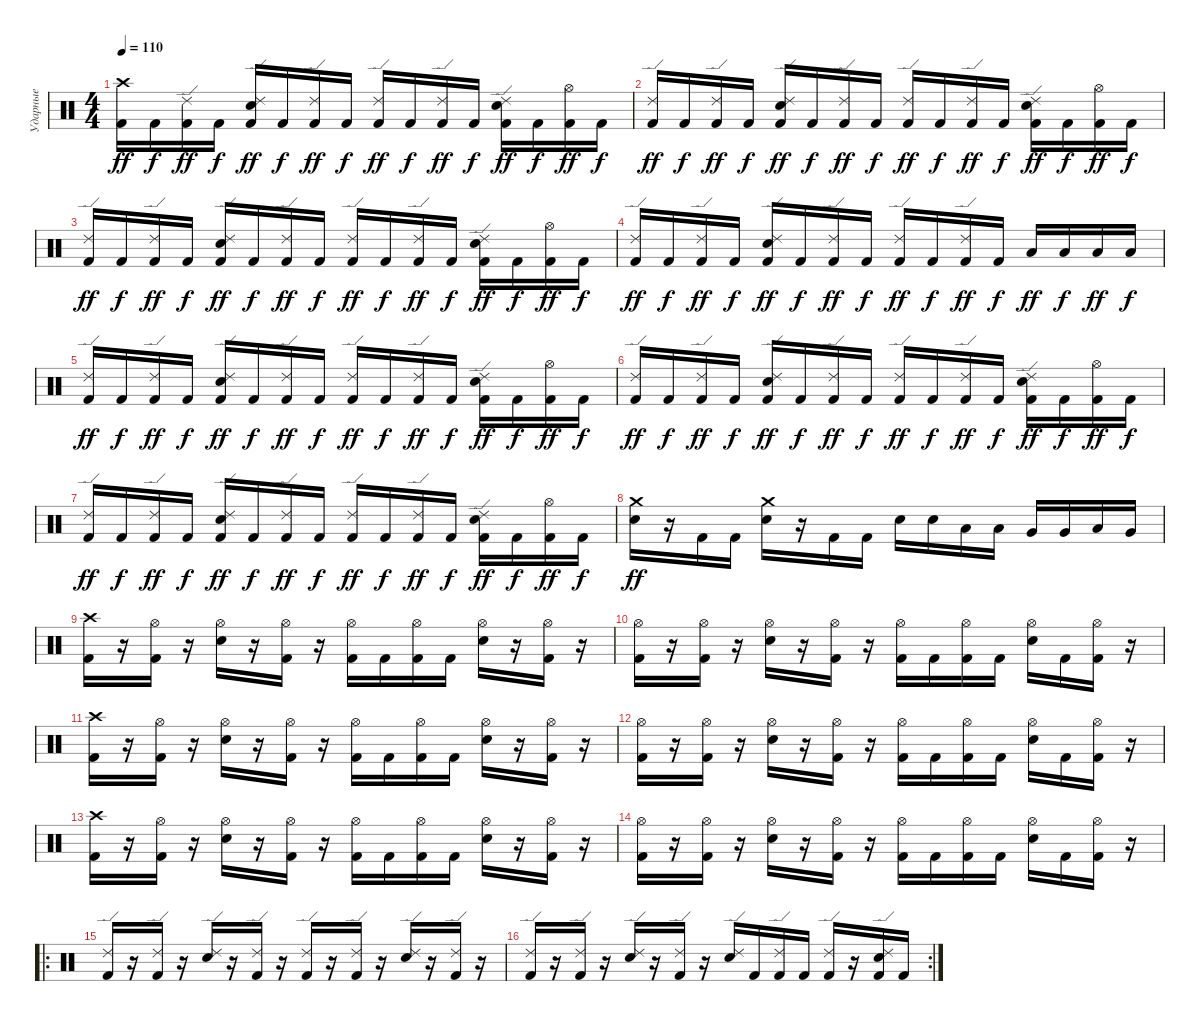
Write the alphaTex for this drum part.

\track ("Ударные" "Ударные") {instrument percussion}
\staff {score}
\articulation defaults
\ts (4 4)
\tempo 110
\clef neutral
\ks c
("Crash high (hit)" "Kick (hit) 2").16{dy ff} "Kick (hit) 2".16{dy f} ("Ride (edge) 2" "Kick (hit) 2").16{dy ff} "Kick (hit) 2".16{dy f} ("Ride (edge) 2" "Snare (hit) 2" "Kick (hit) 2").16{dy ff} "Kick (hit) 2".16{dy f} ("Ride (edge) 2" "Kick (hit) 2").16{dy ff} "Kick (hit) 2".16{dy f} ("Ride (edge) 2" "Kick (hit) 2").16{dy ff} "Kick (hit) 2".16{dy f} ("Ride (edge) 2" "Kick (hit) 2").16{dy ff} "Kick (hit) 2".16{dy f} ("Ride (edge) 2" "Snare (hit) 2" "Kick (hit) 2").16{dy ff} "Kick (hit) 2".16{dy f} ("Hi-Hat (open)" "Kick (hit) 2").16{dy ff} "Kick (hit) 2".16{dy f} |
("Ride (edge) 2" "Kick (hit) 2").16{dy ff} "Kick (hit) 2".16{dy f} ("Ride (edge) 2" "Kick (hit) 2").16{dy ff} "Kick (hit) 2".16{dy f} ("Ride (edge) 2" "Snare (hit) 2" "Kick (hit) 2").16{dy ff} "Kick (hit) 2".16{dy f} ("Ride (edge) 2" "Kick (hit) 2").16{dy ff} "Kick (hit) 2".16{dy f} ("Ride (edge) 2" "Kick (hit) 2").16{dy ff} "Kick (hit) 2".16{dy f} ("Ride (edge) 2" "Kick (hit) 2").16{dy ff} "Kick (hit) 2".16{dy f} ("Ride (edge) 2" "Snare (hit) 2" "Kick (hit) 2").16{dy ff} "Kick (hit) 2".16{dy f} ("Hi-Hat (open)" "Kick (hit) 2").16{dy ff} "Kick (hit) 2".16{dy f} |
("Ride (edge) 2" "Kick (hit) 2").16{dy ff} "Kick (hit) 2".16{dy f} ("Ride (edge) 2" "Kick (hit) 2").16{dy ff} "Kick (hit) 2".16{dy f} ("Ride (edge) 2" "Snare (hit) 2" "Kick (hit) 2").16{dy ff} "Kick (hit) 2".16{dy f} ("Ride (edge) 2" "Kick (hit) 2").16{dy ff} "Kick (hit) 2".16{dy f} ("Ride (edge) 2" "Kick (hit) 2").16{dy ff} "Kick (hit) 2".16{dy f} ("Ride (edge) 2" "Kick (hit) 2").16{dy ff} "Kick (hit) 2".16{dy f} ("Ride (edge) 2" "Snare (hit) 2" "Kick (hit) 2").16{dy ff} "Kick (hit) 2".16{dy f} ("Hi-Hat (open)" "Kick (hit) 2").16{dy ff} "Kick (hit) 2".16{dy f} |
("Ride (edge) 2" "Kick (hit) 2").16{dy ff} "Kick (hit) 2".16{dy f} ("Ride (edge) 2" "Kick (hit) 2").16{dy ff} "Kick (hit) 2".16{dy f} ("Ride (edge) 2" "Snare (hit) 2" "Kick (hit) 2").16{dy ff} "Kick (hit) 2".16{dy f} ("Ride (edge) 2" "Kick (hit) 2").16{dy ff} "Kick (hit) 2".16{dy f} ("Ride (edge) 2" "Kick (hit) 2").16{dy ff} "Kick (hit) 2".16{dy f} ("Ride (edge) 2" "Kick (hit) 2").16{dy ff} "Kick (hit) 2".16{dy f} "Low Floor Tom (hit)".16{dy ff} "Low Floor Tom (hit)".16{dy f} "Low Floor Tom (hit)".16{dy ff} "Low Floor Tom (hit)".16{dy f} |
("Ride (edge) 2" "Kick (hit) 2").16{dy ff} "Kick (hit) 2".16{dy f} ("Ride (edge) 2" "Kick (hit) 2").16{dy ff} "Kick (hit) 2".16{dy f} ("Ride (edge) 2" "Snare (hit) 2" "Kick (hit) 2").16{dy ff} "Kick (hit) 2".16{dy f} ("Ride (edge) 2" "Kick (hit) 2").16{dy ff} "Kick (hit) 2".16{dy f} ("Ride (edge) 2" "Kick (hit) 2").16{dy ff} "Kick (hit) 2".16{dy f} ("Ride (edge) 2" "Kick (hit) 2").16{dy ff} "Kick (hit) 2".16{dy f} ("Ride (edge) 2" "Snare (hit) 2" "Kick (hit) 2").16{dy ff} "Kick (hit) 2".16{dy f} ("Hi-Hat (open)" "Kick (hit) 2").16{dy ff} "Kick (hit) 2".16{dy f} |
("Ride (edge) 2" "Kick (hit) 2").16{dy ff} "Kick (hit) 2".16{dy f} ("Ride (edge) 2" "Kick (hit) 2").16{dy ff} "Kick (hit) 2".16{dy f} ("Ride (edge) 2" "Snare (hit) 2" "Kick (hit) 2").16{dy ff} "Kick (hit) 2".16{dy f} ("Ride (edge) 2" "Kick (hit) 2").16{dy ff} "Kick (hit) 2".16{dy f} ("Ride (edge) 2" "Kick (hit) 2").16{dy ff} "Kick (hit) 2".16{dy f} ("Ride (edge) 2" "Kick (hit) 2").16{dy ff} "Kick (hit) 2".16{dy f} ("Ride (edge) 2" "Snare (hit) 2" "Kick (hit) 2").16{dy ff} "Kick (hit) 2".16{dy f} ("Hi-Hat (open)" "Kick (hit) 2").16{dy ff} "Kick (hit) 2".16{dy f} |
("Ride (edge) 2" "Kick (hit) 2").16{dy ff} "Kick (hit) 2".16{dy f} ("Ride (edge) 2" "Kick (hit) 2").16{dy ff} "Kick (hit) 2".16{dy f} ("Ride (edge) 2" "Snare (hit) 2" "Kick (hit) 2").16{dy ff} "Kick (hit) 2".16{dy f} ("Ride (edge) 2" "Kick (hit) 2").16{dy ff} "Kick (hit) 2".16{dy f} ("Ride (edge) 2" "Kick (hit) 2").16{dy ff} "Kick (hit) 2".16{dy f} ("Ride (edge) 2" "Kick (hit) 2").16{dy ff} "Kick (hit) 2".16{dy f} ("Ride (edge) 2" "Snare (hit) 2" "Kick (hit) 2").16{dy ff} "Kick (hit) 2".16{dy f} ("Hi-Hat (open)" "Kick (hit) 2").16{dy ff} "Kick (hit) 2".16{dy f} |
("Crash medium (hit)" "Snare (hit) 2").16{dy ff} r.16 "Kick (hit) 2".16 "Kick (hit) 2".16 ("Crash medium (hit)" "Snare (hit) 2").16 r.16 "Kick (hit) 2".16 "Kick (hit) 2".16 "Snare (hit) 2".16 "Snare (hit) 2".16 "Low Floor Tom (hit)".16 "Low Floor Tom (hit)".16 "Very Low Tom (hit)".16 "Very Low Tom (hit)".16 "Low Floor Tom (hit)".16 "Very Low Tom (hit)".16 |
("Crash high (hit)" "Kick (hit) 2").16 r.16 ("Hi-Hat (open)" "Kick (hit) 2").16 r.16 ("Hi-Hat (open)" "Snare (hit) 2").16 r.16 ("Hi-Hat (open)" "Kick (hit) 2").16 r.16 ("Hi-Hat (open)" "Kick (hit) 2").16 "Kick (hit) 2".16 ("Hi-Hat (open)" "Kick (hit) 2").16 "Kick (hit) 2".16 ("Hi-Hat (open)" "Snare (hit) 2").16 r.16 ("Hi-Hat (open)" "Kick (hit) 2").16 r.16 |
("Hi-Hat (open)" "Kick (hit) 2").16 r.16 ("Hi-Hat (open)" "Kick (hit) 2").16 r.16 ("Hi-Hat (open)" "Snare (hit) 2").16 r.16 ("Hi-Hat (open)" "Kick (hit) 2").16 r.16 ("Hi-Hat (open)" "Kick (hit) 2").16 "Kick (hit) 2".16 ("Hi-Hat (open)" "Kick (hit) 2").16 "Kick (hit) 2".16 ("Hi-Hat (open)" "Snare (hit) 2").16 "Kick (hit) 2".16 ("Hi-Hat (open)" "Kick (hit) 2").16 r.16 |
("Crash high (hit)" "Kick (hit) 2").16 r.16 ("Hi-Hat (open)" "Kick (hit) 2").16 r.16 ("Hi-Hat (open)" "Snare (hit) 2").16 r.16 ("Hi-Hat (open)" "Kick (hit) 2").16 r.16 ("Hi-Hat (open)" "Kick (hit) 2").16 "Kick (hit) 2".16 ("Hi-Hat (open)" "Kick (hit) 2").16 "Kick (hit) 2".16 ("Hi-Hat (open)" "Snare (hit) 2").16 r.16 ("Hi-Hat (open)" "Kick (hit) 2").16 r.16 |
("Hi-Hat (open)" "Kick (hit) 2").16 r.16 ("Hi-Hat (open)" "Kick (hit) 2").16 r.16 ("Hi-Hat (open)" "Snare (hit) 2").16 r.16 ("Hi-Hat (open)" "Kick (hit) 2").16 r.16 ("Hi-Hat (open)" "Kick (hit) 2").16 "Kick (hit) 2".16 ("Hi-Hat (open)" "Kick (hit) 2").16 "Kick (hit) 2".16 ("Hi-Hat (open)" "Snare (hit) 2").16 "Kick (hit) 2".16 ("Hi-Hat (open)" "Kick (hit) 2").16 r.16 |
("Crash high (hit)" "Kick (hit) 2").16 r.16 ("Hi-Hat (open)" "Kick (hit) 2").16 r.16 ("Hi-Hat (open)" "Snare (hit) 2").16 r.16 ("Hi-Hat (open)" "Kick (hit) 2").16 r.16 ("Hi-Hat (open)" "Kick (hit) 2").16 "Kick (hit) 2".16 ("Hi-Hat (open)" "Kick (hit) 2").16 "Kick (hit) 2".16 ("Hi-Hat (open)" "Snare (hit) 2").16 r.16 ("Hi-Hat (open)" "Kick (hit) 2").16 r.16 |
("Hi-Hat (open)" "Kick (hit) 2").16 r.16 ("Hi-Hat (open)" "Kick (hit) 2").16 r.16 ("Hi-Hat (open)" "Snare (hit) 2").16 r.16 ("Hi-Hat (open)" "Kick (hit) 2").16 r.16 ("Hi-Hat (open)" "Kick (hit) 2").16 "Kick (hit) 2".16 ("Hi-Hat (open)" "Kick (hit) 2").16 "Kick (hit) 2".16 ("Hi-Hat (open)" "Snare (hit) 2").16 "Kick (hit) 2".16 ("Hi-Hat (open)" "Kick (hit) 2").16 r.16 |
\ro
("Ride (edge) 2" "Kick (hit) 2").16 r.16 ("Ride (edge) 2" "Kick (hit) 2").16 r.16 ("Ride (edge) 2" "Snare (hit) 2").16 r.16 ("Ride (edge) 2" "Kick (hit) 2").16 r.16 ("Ride (edge) 2" "Kick (hit) 2").16 r.16 ("Ride (edge) 2" "Kick (hit) 2").16 r.16 ("Ride (edge) 2" "Snare (hit) 2").16 r.16 ("Ride (edge) 2" "Kick (hit) 2").16 r.16 |
\rc 2
("Ride (edge) 2" "Kick (hit) 2").16 r.16 ("Ride (edge) 2" "Kick (hit) 2").16 r.16 ("Ride (edge) 2" "Snare (hit) 2").16 r.16 ("Ride (edge) 2" "Kick (hit) 2").16 r.16 ("Ride (edge) 2" "Snare (hit) 2").16 "Kick (hit) 2".16 ("Ride (edge) 2" "Kick (hit) 2").16 "Kick (hit) 2".16 ("Ride (edge) 2" "Kick (hit) 2").16 r.16 ("Ride (edge) 2" "Snare (hit) 2" "Kick (hit) 2").16 "Kick (hit) 2".16
